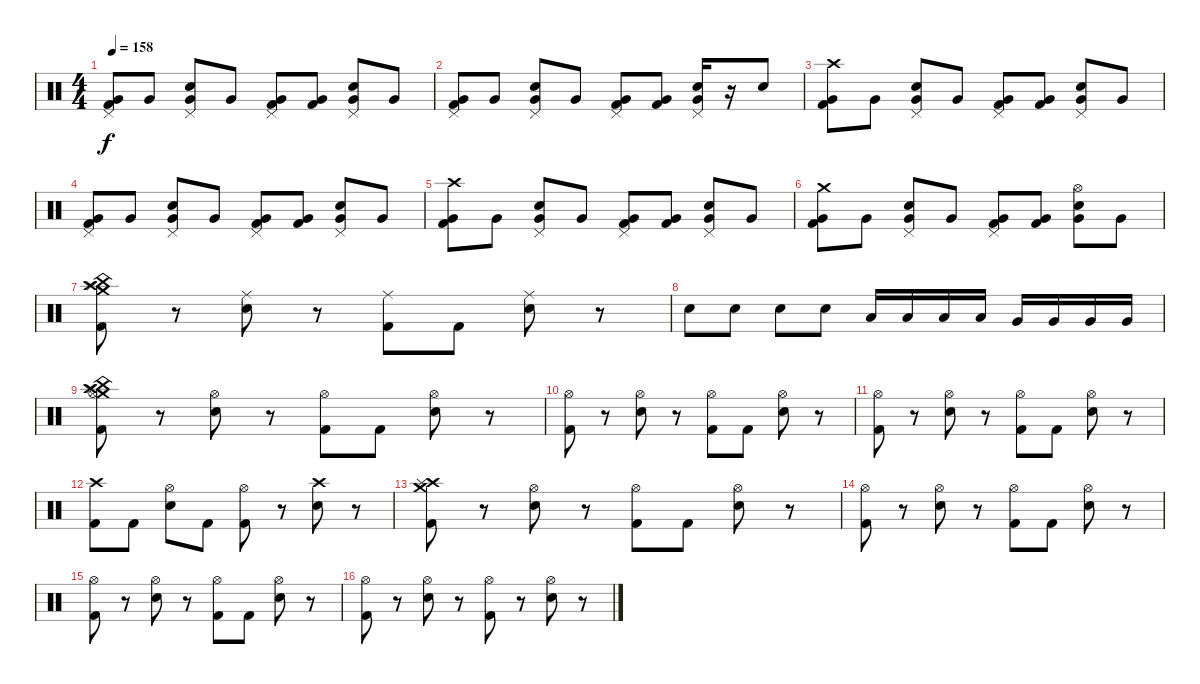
\track "" {instrument percussion}
\staff {score}
\articulation defaults
\ts (4 4)
\tempo 158
\clef neutral
\ks c
("Pedal Hi-Hat (hit)" "Kick (hit) 2" "Very Low Tom (hit)").8{dy f} "Very Low Tom (hit)".8 ("Pedal Hi-Hat (hit)" "Electric Snare (hit)" "Very Low Tom (hit)").8 "Very Low Tom (hit)".8 ("Pedal Hi-Hat (hit)" "Kick (hit) 2" "Very Low Tom (hit)").8 ("Kick (hit) 2" "Very Low Tom (hit)").8 ("Pedal Hi-Hat (hit)" "Electric Snare (hit)" "Very Low Tom (hit)").8 "Very Low Tom (hit)".8 |
("Pedal Hi-Hat (hit)" "Kick (hit) 2" "Very Low Tom (hit)").8 "Very Low Tom (hit)".8 ("Pedal Hi-Hat (hit)" "Electric Snare (hit)" "Very Low Tom (hit)").8 "Very Low Tom (hit)".8 ("Pedal Hi-Hat (hit)" "Kick (hit) 2" "Very Low Tom (hit)").8 ("Kick (hit) 2" "Very Low Tom (hit)").8 ("Pedal Hi-Hat (hit)" "Electric Snare (hit)" "Very Low Tom (hit)").16 r.16 "Electric Snare (hit)".8 |
("Crash high (hit)" "Kick (hit) 2" "Very Low Tom (hit)").8 "Very Low Tom (hit)".8 ("Pedal Hi-Hat (hit)" "Electric Snare (hit)" "Very Low Tom (hit)").8 "Very Low Tom (hit)".8 ("Pedal Hi-Hat (hit)" "Kick (hit) 2" "Very Low Tom (hit)").8 ("Kick (hit) 2" "Very Low Tom (hit)").8 ("Pedal Hi-Hat (hit)" "Electric Snare (hit)" "Very Low Tom (hit)").8 "Very Low Tom (hit)".8 |
("Pedal Hi-Hat (hit)" "Kick (hit) 2" "Very Low Tom (hit)").8 "Very Low Tom (hit)".8 ("Pedal Hi-Hat (hit)" "Electric Snare (hit)" "Very Low Tom (hit)").8 "Very Low Tom (hit)".8 ("Pedal Hi-Hat (hit)" "Kick (hit) 2" "Very Low Tom (hit)").8 ("Kick (hit) 2" "Very Low Tom (hit)").8 ("Pedal Hi-Hat (hit)" "Electric Snare (hit)" "Very Low Tom (hit)").8 "Very Low Tom (hit)".8 |
("Crash high (hit)" "Kick (hit) 2" "Very Low Tom (hit)").8 "Very Low Tom (hit)".8 ("Pedal Hi-Hat (hit)" "Electric Snare (hit)" "Very Low Tom (hit)").8 "Very Low Tom (hit)".8 ("Pedal Hi-Hat (hit)" "Kick (hit) 2" "Very Low Tom (hit)").8 ("Kick (hit) 2" "Very Low Tom (hit)").8 ("Pedal Hi-Hat (hit)" "Electric Snare (hit)" "Very Low Tom (hit)").8 "Very Low Tom (hit)".8 |
("Crash medium (hit)" "Kick (hit) 2" "Very Low Tom (hit)").8 "Very Low Tom (hit)".8 ("Pedal Hi-Hat (hit)" "Electric Snare (hit)" "Very Low Tom (hit)").8 "Very Low Tom (hit)".8 ("Pedal Hi-Hat (hit)" "Kick (hit) 2" "Very Low Tom (hit)").8 ("Kick (hit) 2" "Very Low Tom (hit)").8 ("Hi-Hat (open)" "Electric Snare (hit)" "Very Low Tom (hit)").8 "Very Low Tom (hit)".8 |
("Crash high (hit)" "Crash medium (hit)" "Splash (hit)" "China (hit)" "Kick (hit) 2").8 r.8 ("Ride (middle)" "Electric Snare (hit)").8 r.8 ("Ride (middle)" "Kick (hit) 2").8 "Kick (hit) 2".8 ("Ride (middle)" "Electric Snare (hit)").8 r.8 |
"Electric Snare (hit)".8 "Electric Snare (hit)".8 "Electric Snare (hit)".8 "Electric Snare (hit)".8 "Low Tom (hit)".16 "Low Tom (hit)".16 "Low Tom (hit)".16 "Low Tom (hit)".16 "Very Low Tom (hit)".16 "Very Low Tom (hit)".16 "Very Low Tom (hit)".16 "Very Low Tom (hit)".16 |
("Crash high (hit)" "Crash medium (hit)" "China (hit)" "Splash (hit)" "Hi-Hat (open)" "Kick (hit) 2").8 r.8 ("Hi-Hat (open)" "Electric Snare (hit)").8 r.8 ("Hi-Hat (open)" "Kick (hit) 2").8 "Kick (hit) 2".8 ("Hi-Hat (open)" "Electric Snare (hit)").8 r.8 |
("Hi-Hat (open)" "Kick (hit) 2").8 r.8 ("Hi-Hat (open)" "Electric Snare (hit)").8 r.8 ("Hi-Hat (open)" "Kick (hit) 2").8 "Kick (hit) 2".8 ("Hi-Hat (open)" "Electric Snare (hit)").8 r.8 |
("Hi-Hat (open)" "Kick (hit) 2").8 r.8 ("Hi-Hat (open)" "Electric Snare (hit)").8 r.8 ("Hi-Hat (open)" "Kick (hit) 2").8 "Kick (hit) 2".8 ("Hi-Hat (open)" "Electric Snare (hit)").8 r.8 |
("Crash high (hit)" "Kick (hit) 2").8 "Kick (hit) 2".8 ("Hi-Hat (open)" "Electric Snare (hit)").8 "Kick (hit) 2".8 ("Hi-Hat (open)" "Kick (hit) 2").8 r.8 ("Crash high (hit)" "Electric Snare (hit)").8 r.8 |
("Crash medium (hit)" "Crash high (hit)" "Splash (hit)" "Kick (hit) 2").8 r.8 ("Hi-Hat (open)" "Electric Snare (hit)").8 r.8 ("Hi-Hat (open)" "Kick (hit) 2").8 "Kick (hit) 2".8 ("Hi-Hat (open)" "Electric Snare (hit)").8 r.8 |
("Hi-Hat (open)" "Kick (hit) 2").8 r.8 ("Hi-Hat (open)" "Electric Snare (hit)").8 r.8 ("Hi-Hat (open)" "Kick (hit) 2").8 "Kick (hit) 2".8 ("Hi-Hat (open)" "Electric Snare (hit)").8 r.8 |
("Hi-Hat (open)" "Kick (hit) 2").8 r.8 ("Hi-Hat (open)" "Electric Snare (hit)").8 r.8 ("Hi-Hat (open)" "Kick (hit) 2").8 "Kick (hit) 2".8 ("Hi-Hat (open)" "Electric Snare (hit)").8 r.8 |
("Hi-Hat (open)" "Kick (hit) 2").8 r.8 ("Hi-Hat (open)" "Electric Snare (hit)").8 r.8 ("Hi-Hat (open)" "Kick (hit) 2").8 r.8 ("Hi-Hat (open)" "Electric Snare (hit)").8 r.8
